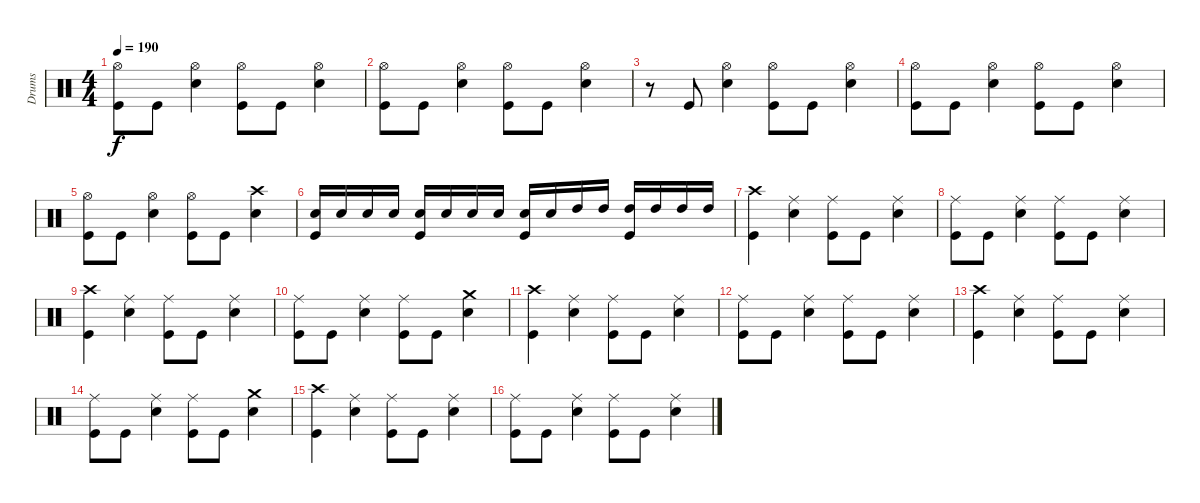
\track ("Drums" "Drums") {instrument percussion}
\staff {score}
\articulation defaults
\ts (4 4)
\tempo 190
\clef neutral
\ks c
("Kick (hit)" "Hi-Hat (open)").8{dy f} "Kick (hit)".8 ("Electric Snare (hit)" "Hi-Hat (open)").4 ("Kick (hit)" "Hi-Hat (open)").8 "Kick (hit)".8 ("Electric Snare (hit)" "Hi-Hat (open)").4 |
("Kick (hit)" "Hi-Hat (open)").8 "Kick (hit)".8 ("Electric Snare (hit)" "Hi-Hat (open)").4 ("Kick (hit)" "Hi-Hat (open)").8 "Kick (hit)".8 ("Electric Snare (hit)" "Hi-Hat (open)").4 |
r.8 "Kick (hit)".8 ("Electric Snare (hit)" "Hi-Hat (open)").4 ("Kick (hit)" "Hi-Hat (open)").8 "Kick (hit)".8 ("Electric Snare (hit)" "Hi-Hat (open)").4 |
("Kick (hit)" "Hi-Hat (open)").8 "Kick (hit)".8 ("Electric Snare (hit)" "Hi-Hat (open)").4 ("Kick (hit)" "Hi-Hat (open)").8 "Kick (hit)".8 ("Electric Snare (hit)" "Hi-Hat (open)").4 |
("Kick (hit)" "Hi-Hat (open)").8 "Kick (hit)".8 ("Electric Snare (hit)" "Hi-Hat (open)").4 ("Kick (hit)" "Hi-Hat (open)").8 "Kick (hit)".8 ("Electric Snare (hit)" "Crash high (hit)").4 |
("Kick (hit)" "Electric Snare (hit)").16 "Electric Snare (hit)".16 "Electric Snare (hit)".16 "Electric Snare (hit)".16 ("Kick (hit)" "Electric Snare (hit)").16 "Electric Snare (hit)".16 "Electric Snare (hit)".16 "Electric Snare (hit)".16 ("Kick (hit)" "Electric Snare (hit)").16 "Electric Snare (hit)".16 "High Tom (hit)".16 "High Tom (hit)".16 ("Kick (hit)" "High Tom (hit)").16 "High Tom (hit)".16 "High Tom (hit)".16 "High Tom (hit)".16 |
("Crash high (hit)" "Kick (hit)").4 ("Electric Snare (hit)" "Ride (middle)").4 ("Kick (hit)" "Ride (middle)").8 "Kick (hit)".8 ("Electric Snare (hit)" "Ride (middle)").4 |
("Kick (hit)" "Ride (middle)").8 "Kick (hit)".8 ("Electric Snare (hit)" "Ride (middle)").4 ("Kick (hit)" "Ride (middle)").8 "Kick (hit)".8 ("Electric Snare (hit)" "Ride (middle)").4 |
("Crash high (hit)" "Kick (hit)").4 ("Electric Snare (hit)" "Ride (middle)").4 ("Kick (hit)" "Ride (middle)").8 "Kick (hit)".8 ("Electric Snare (hit)" "Ride (middle)").4 |
("Kick (hit)" "Ride (middle)").8 "Kick (hit)".8 ("Electric Snare (hit)" "Ride (middle)").4 ("Kick (hit)" "Ride (middle)").8 "Kick (hit)".8 ("Electric Snare (hit)" "Crash medium (hit)").4 |
("Crash high (hit)" "Kick (hit)").4 ("Electric Snare (hit)" "Ride (middle)").4 ("Kick (hit)" "Ride (middle)").8 "Kick (hit)".8 ("Electric Snare (hit)" "Ride (middle)").4 |
("Kick (hit)" "Ride (middle)").8 "Kick (hit)".8 ("Electric Snare (hit)" "Ride (middle)").4 ("Kick (hit)" "Ride (middle)").8 "Kick (hit)".8 ("Electric Snare (hit)" "Ride (middle)").4 |
("Crash high (hit)" "Kick (hit)").4 ("Electric Snare (hit)" "Ride (middle)").4 ("Kick (hit)" "Ride (middle)").8 "Kick (hit)".8 ("Electric Snare (hit)" "Ride (middle)").4 |
("Kick (hit)" "Ride (middle)").8 "Kick (hit)".8 ("Electric Snare (hit)" "Ride (middle)").4 ("Kick (hit)" "Ride (middle)").8 "Kick (hit)".8 ("Electric Snare (hit)" "Crash medium (hit)").4 |
("Crash high (hit)" "Kick (hit)").4 ("Electric Snare (hit)" "Ride (middle)").4 ("Kick (hit)" "Ride (middle)").8 "Kick (hit)".8 ("Electric Snare (hit)" "Ride (middle)").4 |
("Kick (hit)" "Ride (middle)").8 "Kick (hit)".8 ("Electric Snare (hit)" "Ride (middle)").4 ("Kick (hit)" "Ride (middle)").8 "Kick (hit)".8 ("Electric Snare (hit)" "Ride (middle)").4
